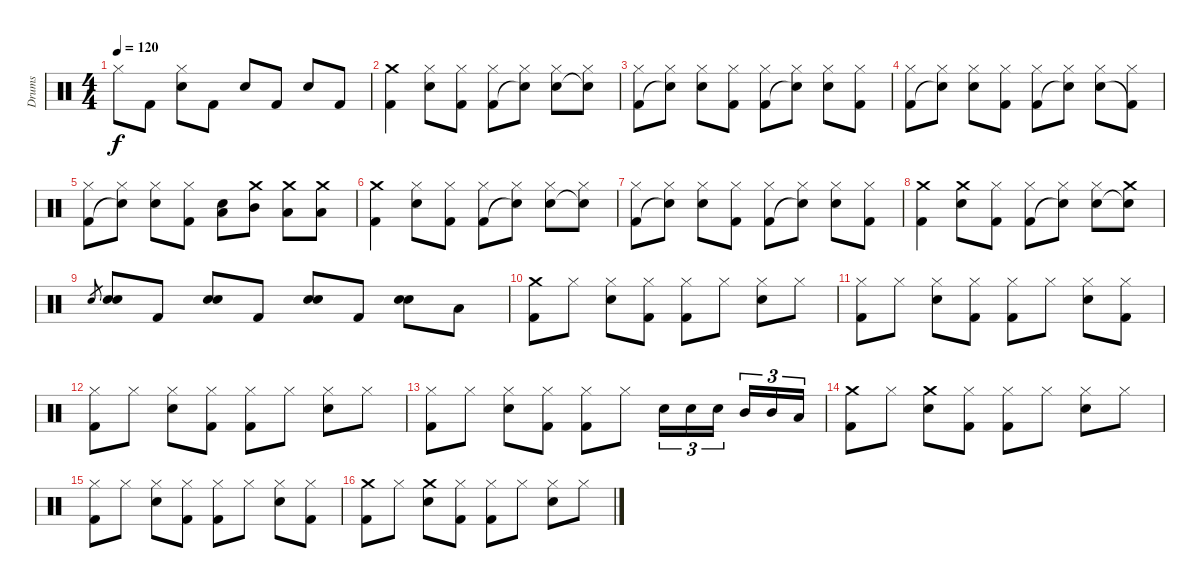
\track ("Drums" "Drums") {instrument percussion}
\staff {score}
\articulation defaults
\ts (4 4)
\tempo 120
\clef neutral
\ks c "Hi-Hat (closed)".8{dy f} "Kick (hit) 2".8
("Snare (hit) 2" "Hi-Hat (closed)").8 "Kick (hit) 2".8 "Snare (hit) 2".8 "Kick (hit) 2".8 "Snare (hit) 2".8 "Kick (hit) 2".8 |
("Kick (hit) 2" "Crash medium (hit)").4 ("Snare (hit) 2" "Hi-Hat (closed)").8 ("Kick (hit) 2" "Hi-Hat (closed)").8 ("Kick (hit) 2" "Hi-Hat (closed)").8 ("Snare (hit)"{t} "Hi-Hat (closed)").8 ("Snare (hit) 2" "Hi-Hat (closed)").8 ("Snare (hit)"{t} "Hi-Hat (closed)").8 |
("Kick (hit) 2" "Hi-Hat (closed)").8 ("Snare (hit)"{t} "Hi-Hat (closed)").8 ("Snare (hit) 2" "Hi-Hat (closed)").8 ("Kick (hit) 2" "Hi-Hat (closed)").8 ("Kick (hit) 2" "Hi-Hat (closed)").8 ("Snare (hit)"{t} "Hi-Hat (closed)").8 ("Snare (hit) 2" "Hi-Hat (closed)").8 ("Kick (hit) 2" "Hi-Hat (closed)").8 |
("Kick (hit) 2" "Hi-Hat (closed)").8 ("Snare (hit)"{t} "Hi-Hat (closed)").8 ("Snare (hit) 2" "Hi-Hat (closed)").8 ("Kick (hit) 2" "Hi-Hat (closed)").8 ("Kick (hit) 2" "Hi-Hat (closed)").8 ("Snare (hit)"{t} "Hi-Hat (closed)").8 ("Snare (hit) 2" "Hi-Hat (closed)").8 ("Kick (hit) 2"{t} "Hi-Hat (closed)").8 |
("Kick (hit) 2" "Hi-Hat (closed)").8 ("Snare (hit)"{t} "Hi-Hat (closed)").8 ("Snare (hit) 2" "Hi-Hat (closed)").8 ("Kick (hit) 2" "Hi-Hat (closed)").8 ("Snare (hit) 2" "Low Floor Tom (hit)").8 ("Mid Tom (hit)" "Crash medium (hit)").8 ("Low Floor Tom (hit)" "Crash medium (hit)").8 ("Low Floor Tom (hit)" "Crash medium (hit)").8 |
("Kick (hit) 2" "Crash medium (hit)").4 ("Snare (hit) 2" "Hi-Hat (closed)").8 ("Kick (hit) 2" "Hi-Hat (closed)").8 ("Kick (hit) 2" "Hi-Hat (closed)").8 ("Snare (hit)"{t} "Hi-Hat (closed)").8 ("Snare (hit) 2" "Hi-Hat (closed)").8 ("Snare (hit)"{t} "Hi-Hat (closed)").8 |
("Kick (hit) 2" "Hi-Hat (closed)").8 ("Snare (hit)"{t} "Hi-Hat (closed)").8 ("Snare (hit) 2" "Hi-Hat (closed)").8 ("Kick (hit) 2" "Hi-Hat (closed)").8 ("Kick (hit) 2" "Hi-Hat (closed)").8 ("Snare (hit)"{t} "Hi-Hat (closed)").8 ("Snare (hit) 2" "Hi-Hat (closed)").8 ("Kick (hit) 2" "Hi-Hat (closed)").8 |
("Kick (hit) 2" "Crash medium (hit)").4 ("Snare (hit) 2" "Crash medium (hit)").8 ("Kick (hit) 2" "Hi-Hat (closed)").8 ("Kick (hit) 2" "Hi-Hat (closed)").8 ("Snare (hit)"{t} "Hi-Hat (closed)").8 ("Snare (hit) 2" "Hi-Hat (closed)").8 ("Snare (hit)"{t} "Crash medium (hit)").8 |
"Snare (hit) 2".8{gr} ("Snare (hit) 2" "Snare (hit) 2").8 "Kick (hit) 2".8 ("Snare (hit) 2" "Snare (hit) 2").8 "Kick (hit) 2".8 ("Snare (hit) 2" "Snare (hit) 2").8 "Kick (hit) 2".8 ("Snare (hit) 2" "Snare (hit) 2").8 "Low Tom (hit)".8 |
("Kick (hit) 2" "Crash medium (hit)").8 "Hi-Hat (closed)".8 ("Snare (hit) 2" "Hi-Hat (closed)").8 ("Kick (hit) 2" "Hi-Hat (closed)").8 ("Kick (hit) 2" "Hi-Hat (closed)").8 "Hi-Hat (closed)".8 ("Snare (hit) 2" "Hi-Hat (closed)").8 "Hi-Hat (closed)".8 |
("Kick (hit) 2" "Hi-Hat (closed)").8 "Hi-Hat (closed)".8 ("Snare (hit) 2" "Hi-Hat (closed)").8 ("Kick (hit) 2" "Hi-Hat (closed)").8 ("Kick (hit) 2" "Hi-Hat (closed)").8 "Hi-Hat (closed)".8 ("Snare (hit) 2" "Hi-Hat (closed)").8 ("Kick (hit) 2" "Hi-Hat (closed)").8 |
("Kick (hit) 2" "Hi-Hat (closed)").8 "Hi-Hat (closed)".8 ("Snare (hit) 2" "Hi-Hat (closed)").8 ("Kick (hit) 2" "Hi-Hat (closed)").8 ("Kick (hit) 2" "Hi-Hat (closed)").8 "Hi-Hat (closed)".8 ("Snare (hit) 2" "Hi-Hat (closed)").8 "Hi-Hat (closed)".8 |
("Kick (hit) 2" "Hi-Hat (closed)").8 "Hi-Hat (closed)".8 ("Snare (hit) 2" "Hi-Hat (closed)").8 ("Kick (hit) 2" "Hi-Hat (closed)").8 ("Kick (hit) 2" "Hi-Hat (closed)").8 "Hi-Hat (closed)".8 "Snare (hit) 2".16{tu (3 2)} "Snare (hit) 2".16{tu (3 2)} "Snare (hit) 2".16{tu (3 2)} "Mid Tom (hit)".16{tu (3 2)} "Mid Tom (hit)".16{tu (3 2)} "Low Tom (hit)".16{tu (3 2)} |
("Kick (hit) 2" "Crash medium (hit)").8 "Hi-Hat (closed)".8 ("Snare (hit) 2" "Crash medium (hit)").8 ("Kick (hit) 2" "Hi-Hat (closed)").8 ("Kick (hit) 2" "Hi-Hat (closed)").8 "Hi-Hat (closed)".8 ("Snare (hit) 2" "Hi-Hat (closed)").8 "Hi-Hat (closed)".8 |
("Kick (hit) 2" "Hi-Hat (closed)").8 "Hi-Hat (closed)".8 ("Snare (hit) 2" "Hi-Hat (closed)").8 ("Kick (hit) 2" "Hi-Hat (closed)").8 ("Kick (hit) 2" "Hi-Hat (closed)").8 "Hi-Hat (closed)".8 ("Snare (hit) 2" "Hi-Hat (closed)").8 ("Kick (hit) 2" "Hi-Hat (closed)").8 |
("Kick (hit) 2" "Crash medium (hit)").8 "Hi-Hat (closed)".8 ("Snare (hit) 2" "Crash medium (hit)").8 ("Kick (hit) 2" "Hi-Hat (closed)").8 ("Kick (hit) 2" "Hi-Hat (closed)").8 "Hi-Hat (closed)".8 ("Snare (hit) 2" "Hi-Hat (closed)").8 "Hi-Hat (closed)".8
